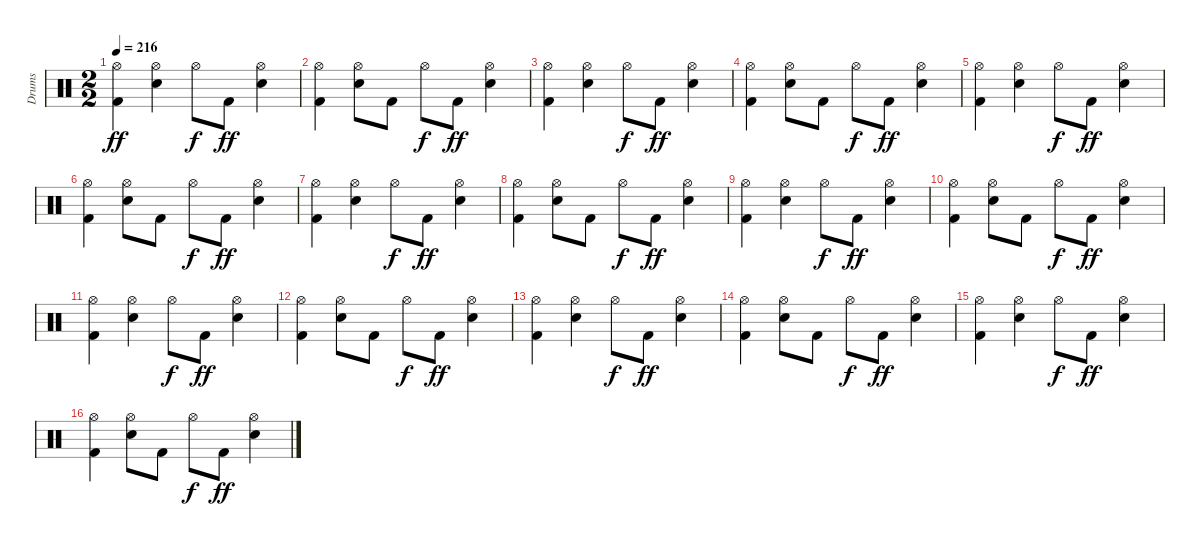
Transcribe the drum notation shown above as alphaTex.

\track ("Drums" "Drums") {instrument percussion}
\staff {score}
\articulation defaults
\ts (2 2)
\tempo 216
\clef neutral
\ks c
("Kick (hit) 2" "Hi-Hat (open)").4{dy ff} ("Electric Snare (hit)" "Hi-Hat (open)").4 "Hi-Hat (open)".8{dy f} "Kick (hit) 2".8{dy ff} ("Electric Snare (hit)" "Hi-Hat (open)").4 |
("Kick (hit) 2" "Hi-Hat (open)").4 ("Electric Snare (hit)" "Hi-Hat (open)").8 "Kick (hit) 2".8 "Hi-Hat (open)".8{dy f} "Kick (hit) 2".8{dy ff} ("Electric Snare (hit)" "Hi-Hat (open)").4 |
("Kick (hit) 2" "Hi-Hat (open)").4 ("Electric Snare (hit)" "Hi-Hat (open)").4 "Hi-Hat (open)".8{dy f} "Kick (hit) 2".8{dy ff} ("Electric Snare (hit)" "Hi-Hat (open)").4 |
("Kick (hit) 2" "Hi-Hat (open)").4 ("Electric Snare (hit)" "Hi-Hat (open)").8 "Kick (hit) 2".8 "Hi-Hat (open)".8{dy f} "Kick (hit) 2".8{dy ff} ("Electric Snare (hit)" "Hi-Hat (open)").4 |
("Kick (hit) 2" "Hi-Hat (open)").4 ("Electric Snare (hit)" "Hi-Hat (open)").4 "Hi-Hat (open)".8{dy f} "Kick (hit) 2".8{dy ff} ("Electric Snare (hit)" "Hi-Hat (open)").4 |
("Kick (hit) 2" "Hi-Hat (open)").4 ("Electric Snare (hit)" "Hi-Hat (open)").8 "Kick (hit) 2".8 "Hi-Hat (open)".8{dy f} "Kick (hit) 2".8{dy ff} ("Electric Snare (hit)" "Hi-Hat (open)").4 |
("Kick (hit) 2" "Hi-Hat (open)").4 ("Electric Snare (hit)" "Hi-Hat (open)").4 "Hi-Hat (open)".8{dy f} "Kick (hit) 2".8{dy ff} ("Electric Snare (hit)" "Hi-Hat (open)").4 |
("Kick (hit) 2" "Hi-Hat (open)").4 ("Electric Snare (hit)" "Hi-Hat (open)").8 "Kick (hit) 2".8 "Hi-Hat (open)".8{dy f} "Kick (hit) 2".8{dy ff} ("Electric Snare (hit)" "Hi-Hat (open)").4 |
("Kick (hit) 2" "Hi-Hat (open)").4 ("Electric Snare (hit)" "Hi-Hat (open)").4 "Hi-Hat (open)".8{dy f} "Kick (hit) 2".8{dy ff} ("Electric Snare (hit)" "Hi-Hat (open)").4 |
("Kick (hit) 2" "Hi-Hat (open)").4 ("Electric Snare (hit)" "Hi-Hat (open)").8 "Kick (hit) 2".8 "Hi-Hat (open)".8{dy f} "Kick (hit) 2".8{dy ff} ("Electric Snare (hit)" "Hi-Hat (open)").4 |
("Kick (hit) 2" "Hi-Hat (open)").4 ("Electric Snare (hit)" "Hi-Hat (open)").4 "Hi-Hat (open)".8{dy f} "Kick (hit) 2".8{dy ff} ("Electric Snare (hit)" "Hi-Hat (open)").4 |
("Kick (hit) 2" "Hi-Hat (open)").4 ("Electric Snare (hit)" "Hi-Hat (open)").8 "Kick (hit) 2".8 "Hi-Hat (open)".8{dy f} "Kick (hit) 2".8{dy ff} ("Electric Snare (hit)" "Hi-Hat (open)").4 |
("Kick (hit) 2" "Hi-Hat (open)").4 ("Electric Snare (hit)" "Hi-Hat (open)").4 "Hi-Hat (open)".8{dy f} "Kick (hit) 2".8{dy ff} ("Electric Snare (hit)" "Hi-Hat (open)").4 |
("Kick (hit) 2" "Hi-Hat (open)").4 ("Electric Snare (hit)" "Hi-Hat (open)").8 "Kick (hit) 2".8 "Hi-Hat (open)".8{dy f} "Kick (hit) 2".8{dy ff} ("Electric Snare (hit)" "Hi-Hat (open)").4 |
("Kick (hit) 2" "Hi-Hat (open)").4 ("Electric Snare (hit)" "Hi-Hat (open)").4 "Hi-Hat (open)".8{dy f} "Kick (hit) 2".8{dy ff} ("Electric Snare (hit)" "Hi-Hat (open)").4 |
("Kick (hit) 2" "Hi-Hat (open)").4 ("Electric Snare (hit)" "Hi-Hat (open)").8 "Kick (hit) 2".8 "Hi-Hat (open)".8{dy f} "Kick (hit) 2".8{dy ff} ("Electric Snare (hit)" "Hi-Hat (open)").4
